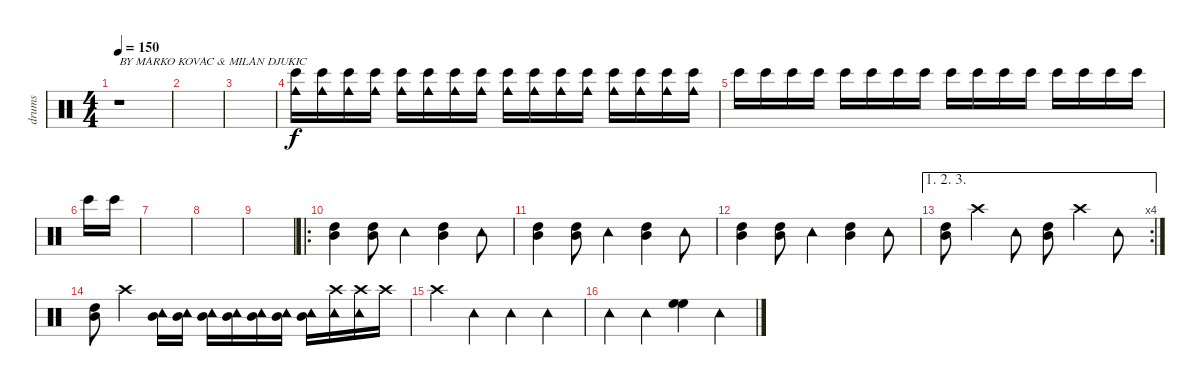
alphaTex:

\track ("drums" "drums") {instrument percussion}
\staff {score}
\articulation defaults
\ts (4 4)
\tempo 150
\clef neutral
\ks c
r.1{txt "BY MARKO KOVAC & MILAN DJUKIC" dy f} |
|
|
("Cowbell medium (hit)" "Bongo High (hit)").16 ("Cowbell medium (hit)" "Bongo High (hit)").16 ("Cowbell medium (hit)" "Bongo High (hit)").16 ("Cowbell medium (hit)" "Bongo High (hit)").16 ("Cowbell medium (hit)" "Bongo High (hit)").16 ("Cowbell medium (hit)" "Bongo High (hit)").16 ("Cowbell medium (hit)" "Bongo High (hit)").16 ("Cowbell medium (hit)" "Bongo High (hit)").16 ("Cowbell medium (hit)" "Bongo High (hit)").16 ("Cowbell medium (hit)" "Bongo High (hit)").16 ("Cowbell medium (hit)" "Bongo High (hit)").16 ("Cowbell medium (hit)" "Bongo High (hit)").16 ("Cowbell medium (hit)" "Bongo High (hit)").16 ("Cowbell medium (hit)" "Bongo High (hit)").16 ("Cowbell medium (hit)" "Bongo High (hit)").16 ("Cowbell medium (hit)" "Bongo High (hit)").16 |
"Bongo High (hit)".16 "Bongo High (hit)".16 "Bongo High (hit)".16 "Bongo High (hit)".16 "Bongo High (hit)".16 "Bongo High (hit)".16 "Bongo High (hit)".16 "Bongo High (hit)".16 "Bongo High (hit)".16 "Bongo High (hit)".16 "Bongo High (hit)".16 "Bongo High (hit)".16 "Bongo High (hit)".16 "Bongo High (hit)".16 "Bongo High (hit)".16 "Bongo High (hit)".16 |
"Bongo High (hit)".16 "Bongo High (hit)".16 |
|
|
|
\ro
("High Tom (hit)" "Mid Tom (hit)").4 ("High Tom (hit)" "Mid Tom (hit)").8 "Tambourine (hit)".4 ("High Tom (hit)" "Mid Tom (hit)").4 "Tambourine (hit)".8 |
("High Tom (hit)" "Mid Tom (hit)").4 ("High Tom (hit)" "Mid Tom (hit)").8 "Tambourine (hit)".4 ("High Tom (hit)" "Mid Tom (hit)").4 "Tambourine (hit)".8 |
("High Tom (hit)" "Mid Tom (hit)").4 ("High Tom (hit)" "Mid Tom (hit)").8 "Tambourine (hit)".4 ("High Tom (hit)" "Mid Tom (hit)").4 "Tambourine (hit)".8 |
\ae (1 2 3)
\rc 4
("High Tom (hit)" "Mid Tom (hit)").8 "Crash high (hit)".4 "Tambourine (hit)".8 ("High Tom (hit)" "Mid Tom (hit)").8 "Crash high (hit)".4 "Tambourine (hit)".8 |
("High Tom (hit)" "Mid Tom (hit)").8 "Crash high (hit)".4 ("Mid Tom (hit)" "Tambourine (hit)").16 ("Mid Tom (hit)" "Tambourine (hit)").16 ("Mid Tom (hit)" "Tambourine (hit)").16 ("Mid Tom (hit)" "Tambourine (hit)").16 ("Mid Tom (hit)" "Tambourine (hit)").16 ("Mid Tom (hit)" "Tambourine (hit)").16 ("Mid Tom (hit)" "Tambourine (hit)").16 ("Crash high (hit)" "Tambourine (hit)").16 ("Crash high (hit)" "Tambourine (hit)").16 "Crash high (hit)".16 |
"Crash high (hit)".4 "Tambourine (hit)".4 "Tambourine (hit)".4 "Tambourine (hit)".4 |
"Tambourine (hit)".4 "Tambourine (hit)".4 ("High Floor Tom (hit)" "High Floor Tom (hit)").4 "Tambourine (hit)".4
